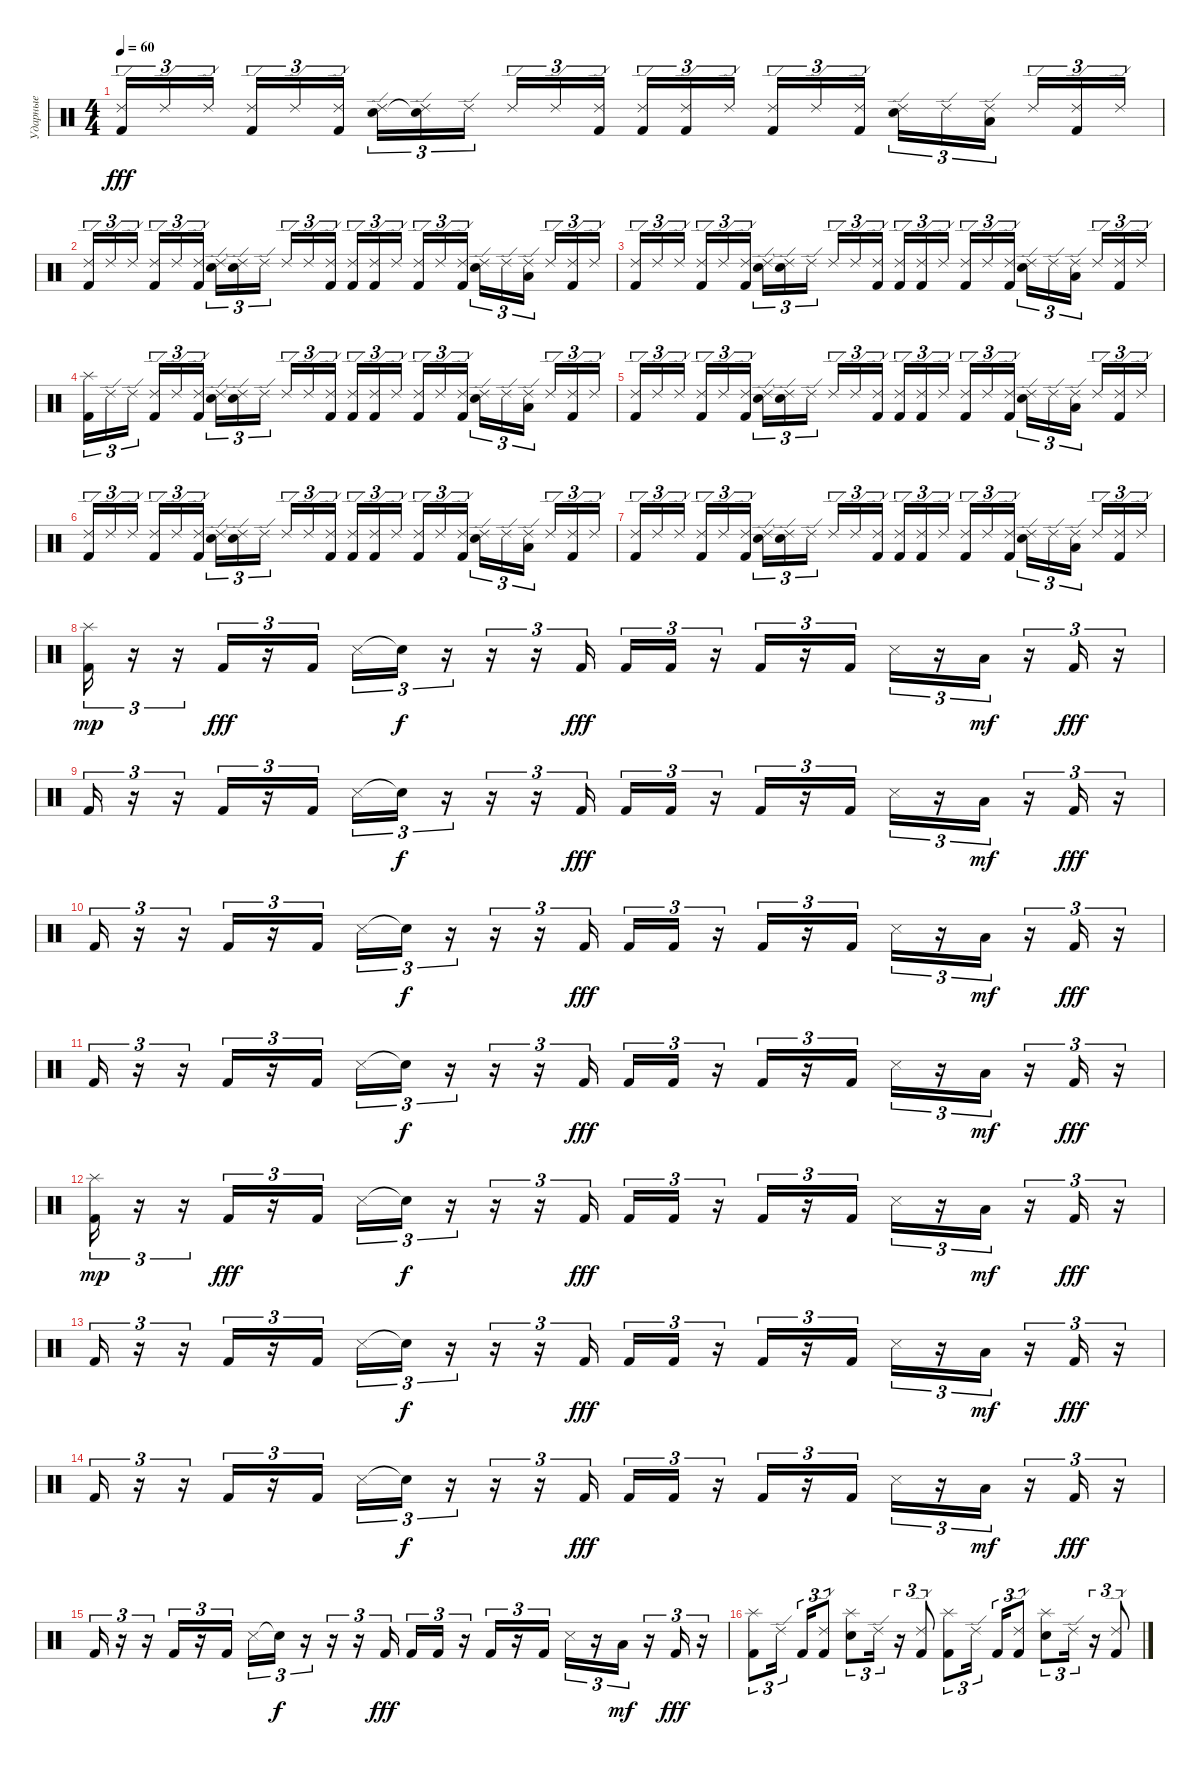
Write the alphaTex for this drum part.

\track ("Ударные" "Ударные") {instrument percussion}
\staff {score}
\articulation defaults
\ts (4 4)
\tempo 60
\clef neutral
\ks c
("Kick (hit) 2" "Ride (edge) 2").16{tu (3 2) dy fff} "Ride (edge) 2".16{tu (3 2)} "Ride (edge) 2".16{tu (3 2) beam splitsecondary} ("Kick (hit) 2" "Ride (edge) 2").16{tu (3 2)} "Ride (edge) 2".16{tu (3 2)} ("Kick (hit) 2" "Ride (edge) 2").16{tu (3 2)} ("Electric Snare (hit)" "Ride (edge) 2").16{tu (3 2)} ("Snare (hit)"{t} "Ride (edge) 2").16{tu (3 2)} "Ride (edge) 2".16{tu (3 2) beam splitsecondary} "Ride (edge) 2".16{tu (3 2)} "Ride (edge) 2".16{tu (3 2)} ("Kick (hit) 2" "Ride (edge) 2").16{tu (3 2)} ("Kick (hit) 2" "Ride (edge) 2").16{tu (3 2)} ("Kick (hit) 2" "Ride (edge) 2").16{tu (3 2)} "Ride (edge) 2".16{tu (3 2) beam splitsecondary} ("Kick (hit) 2" "Ride (edge) 2").16{tu (3 2)} "Ride (edge) 2".16{tu (3 2)} ("Kick (hit) 2" "Ride (edge) 2").16{tu (3 2)} ("Electric Snare (hit)" "Ride (edge) 2").16{tu (3 2)} "Ride (edge) 2".16{tu (3 2)} ("Low Floor Tom (hit)" "Ride (edge) 2").16{tu (3 2) beam splitsecondary} "Ride (edge) 2".16{tu (3 2)} ("Kick (hit) 2" "Ride (edge) 2").16{tu (3 2)} "Ride (edge) 2".16{tu (3 2)} |
("Kick (hit) 2" "Ride (edge) 2").16{tu (3 2)} "Ride (edge) 2".16{tu (3 2)} "Ride (edge) 2".16{tu (3 2) beam splitsecondary} ("Kick (hit) 2" "Ride (edge) 2").16{tu (3 2)} "Ride (edge) 2".16{tu (3 2)} ("Kick (hit) 2" "Ride (edge) 2").16{tu (3 2)} ("Electric Snare (hit)" "Ride (edge) 2").16{tu (3 2)} ("Snare (hit)"{t} "Ride (edge) 2").16{tu (3 2)} "Ride (edge) 2".16{tu (3 2) beam splitsecondary} "Ride (edge) 2".16{tu (3 2)} "Ride (edge) 2".16{tu (3 2)} ("Kick (hit) 2" "Ride (edge) 2").16{tu (3 2)} ("Kick (hit) 2" "Ride (edge) 2").16{tu (3 2)} ("Kick (hit) 2" "Ride (edge) 2").16{tu (3 2)} "Ride (edge) 2".16{tu (3 2) beam splitsecondary} ("Kick (hit) 2" "Ride (edge) 2").16{tu (3 2)} "Ride (edge) 2".16{tu (3 2)} ("Kick (hit) 2" "Ride (edge) 2").16{tu (3 2)} ("Electric Snare (hit)" "Ride (edge) 2").16{tu (3 2)} "Ride (edge) 2".16{tu (3 2)} ("Low Floor Tom (hit)" "Ride (edge) 2").16{tu (3 2) beam splitsecondary} "Ride (edge) 2".16{tu (3 2)} ("Kick (hit) 2" "Ride (edge) 2").16{tu (3 2)} "Ride (edge) 2".16{tu (3 2)} |
("Kick (hit) 2" "Ride (edge) 2").16{tu (3 2)} "Ride (edge) 2".16{tu (3 2)} "Ride (edge) 2".16{tu (3 2) beam splitsecondary} ("Kick (hit) 2" "Ride (edge) 2").16{tu (3 2)} "Ride (edge) 2".16{tu (3 2)} ("Kick (hit) 2" "Ride (edge) 2").16{tu (3 2)} ("Electric Snare (hit)" "Ride (edge) 2").16{tu (3 2)} ("Snare (hit)"{t} "Ride (edge) 2").16{tu (3 2)} "Ride (edge) 2".16{tu (3 2) beam splitsecondary} "Ride (edge) 2".16{tu (3 2)} "Ride (edge) 2".16{tu (3 2)} ("Kick (hit) 2" "Ride (edge) 2").16{tu (3 2)} ("Kick (hit) 2" "Ride (edge) 2").16{tu (3 2)} ("Kick (hit) 2" "Ride (edge) 2").16{tu (3 2)} "Ride (edge) 2".16{tu (3 2) beam splitsecondary} ("Kick (hit) 2" "Ride (edge) 2").16{tu (3 2)} "Ride (edge) 2".16{tu (3 2)} ("Kick (hit) 2" "Ride (edge) 2").16{tu (3 2)} ("Electric Snare (hit)" "Ride (edge) 2").16{tu (3 2)} "Ride (edge) 2".16{tu (3 2)} ("Low Floor Tom (hit)" "Ride (edge) 2").16{tu (3 2) beam splitsecondary} "Ride (edge) 2".16{tu (3 2)} ("Kick (hit) 2" "Ride (edge) 2").16{tu (3 2)} "Ride (edge) 2".16{tu (3 2)} |
("Kick (hit) 2" "Splash (hit)").16{tu (3 2)} "Ride (edge) 2".16{tu (3 2)} "Ride (edge) 2".16{tu (3 2) beam splitsecondary} ("Kick (hit) 2" "Ride (edge) 2").16{tu (3 2)} "Ride (edge) 2".16{tu (3 2)} ("Kick (hit) 2" "Ride (edge) 2").16{tu (3 2)} ("Electric Snare (hit)" "Ride (edge) 2").16{tu (3 2)} ("Snare (hit)"{t} "Ride (edge) 2").16{tu (3 2)} "Ride (edge) 2".16{tu (3 2) beam splitsecondary} "Ride (edge) 2".16{tu (3 2)} "Ride (edge) 2".16{tu (3 2)} ("Kick (hit) 2" "Ride (edge) 2").16{tu (3 2)} ("Kick (hit) 2" "Ride (edge) 2").16{tu (3 2)} ("Kick (hit) 2" "Ride (edge) 2").16{tu (3 2)} "Ride (edge) 2".16{tu (3 2) beam splitsecondary} ("Kick (hit) 2" "Ride (edge) 2").16{tu (3 2)} "Ride (edge) 2".16{tu (3 2)} ("Kick (hit) 2" "Ride (edge) 2").16{tu (3 2)} ("Electric Snare (hit)" "Ride (edge) 2").16{tu (3 2)} "Ride (edge) 2".16{tu (3 2)} ("Low Floor Tom (hit)" "Ride (edge) 2").16{tu (3 2) beam splitsecondary} "Ride (edge) 2".16{tu (3 2)} ("Kick (hit) 2" "Ride (edge) 2").16{tu (3 2)} "Ride (edge) 2".16{tu (3 2)} |
("Kick (hit) 2" "Ride (edge) 2").16{tu (3 2)} "Ride (edge) 2".16{tu (3 2)} "Ride (edge) 2".16{tu (3 2) beam splitsecondary} ("Kick (hit) 2" "Ride (edge) 2").16{tu (3 2)} "Ride (edge) 2".16{tu (3 2)} ("Kick (hit) 2" "Ride (edge) 2").16{tu (3 2)} ("Electric Snare (hit)" "Ride (edge) 2").16{tu (3 2)} ("Snare (hit)"{t} "Ride (edge) 2").16{tu (3 2)} "Ride (edge) 2".16{tu (3 2) beam splitsecondary} "Ride (edge) 2".16{tu (3 2)} "Ride (edge) 2".16{tu (3 2)} ("Kick (hit) 2" "Ride (edge) 2").16{tu (3 2)} ("Kick (hit) 2" "Ride (edge) 2").16{tu (3 2)} ("Kick (hit) 2" "Ride (edge) 2").16{tu (3 2)} "Ride (edge) 2".16{tu (3 2) beam splitsecondary} ("Kick (hit) 2" "Ride (edge) 2").16{tu (3 2)} "Ride (edge) 2".16{tu (3 2)} ("Kick (hit) 2" "Ride (edge) 2").16{tu (3 2)} ("Electric Snare (hit)" "Ride (edge) 2").16{tu (3 2)} "Ride (edge) 2".16{tu (3 2)} ("Low Floor Tom (hit)" "Ride (edge) 2").16{tu (3 2) beam splitsecondary} "Ride (edge) 2".16{tu (3 2)} ("Kick (hit) 2" "Ride (edge) 2").16{tu (3 2)} "Ride (edge) 2".16{tu (3 2)} |
("Kick (hit) 2" "Ride (edge) 2").16{tu (3 2)} "Ride (edge) 2".16{tu (3 2)} "Ride (edge) 2".16{tu (3 2) beam splitsecondary} ("Kick (hit) 2" "Ride (edge) 2").16{tu (3 2)} "Ride (edge) 2".16{tu (3 2)} ("Kick (hit) 2" "Ride (edge) 2").16{tu (3 2)} ("Electric Snare (hit)" "Ride (edge) 2").16{tu (3 2)} ("Snare (hit)"{t} "Ride (edge) 2").16{tu (3 2)} "Ride (edge) 2".16{tu (3 2) beam splitsecondary} "Ride (edge) 2".16{tu (3 2)} "Ride (edge) 2".16{tu (3 2)} ("Kick (hit) 2" "Ride (edge) 2").16{tu (3 2)} ("Kick (hit) 2" "Ride (edge) 2").16{tu (3 2)} ("Kick (hit) 2" "Ride (edge) 2").16{tu (3 2)} "Ride (edge) 2".16{tu (3 2) beam splitsecondary} ("Kick (hit) 2" "Ride (edge) 2").16{tu (3 2)} "Ride (edge) 2".16{tu (3 2)} ("Kick (hit) 2" "Ride (edge) 2").16{tu (3 2)} ("Electric Snare (hit)" "Ride (edge) 2").16{tu (3 2)} "Ride (edge) 2".16{tu (3 2)} ("Low Floor Tom (hit)" "Ride (edge) 2").16{tu (3 2) beam splitsecondary} "Ride (edge) 2".16{tu (3 2)} ("Kick (hit) 2" "Ride (edge) 2").16{tu (3 2)} "Ride (edge) 2".16{tu (3 2)} |
("Kick (hit) 2" "Ride (edge) 2").16{tu (3 2)} "Ride (edge) 2".16{tu (3 2)} "Ride (edge) 2".16{tu (3 2) beam splitsecondary} ("Kick (hit) 2" "Ride (edge) 2").16{tu (3 2)} "Ride (edge) 2".16{tu (3 2)} ("Kick (hit) 2" "Ride (edge) 2").16{tu (3 2)} ("Electric Snare (hit)" "Ride (edge) 2").16{tu (3 2)} ("Snare (hit)"{t} "Ride (edge) 2").16{tu (3 2)} "Ride (edge) 2".16{tu (3 2) beam splitsecondary} "Ride (edge) 2".16{tu (3 2)} "Ride (edge) 2".16{tu (3 2)} ("Kick (hit) 2" "Ride (edge) 2").16{tu (3 2)} ("Kick (hit) 2" "Ride (edge) 2").16{tu (3 2)} ("Kick (hit) 2" "Ride (edge) 2").16{tu (3 2)} "Ride (edge) 2".16{tu (3 2) beam splitsecondary} ("Kick (hit) 2" "Ride (edge) 2").16{tu (3 2)} "Ride (edge) 2".16{tu (3 2)} ("Kick (hit) 2" "Ride (edge) 2").16{tu (3 2)} ("Electric Snare (hit)" "Ride (edge) 2").16{tu (3 2)} "Ride (edge) 2".16{tu (3 2)} ("Low Floor Tom (hit)" "Ride (edge) 2").16{tu (3 2) beam splitsecondary} "Ride (edge) 2".16{tu (3 2)} ("Kick (hit) 2" "Ride (edge) 2").16{tu (3 2)} "Ride (edge) 2".16{tu (3 2)} |
("Kick (hit) 2" "Splash (hit)").16{tu (3 2) dy mp} r.16{tu (3 2)} r.16{tu (3 2)} "Kick (hit) 2".16{tu (3 2) dy fff} r.16{tu (3 2)} "Kick (hit) 2".16{tu (3 2)} "Snare (side stick) 3".16{tu (3 2)} "Snare (hit)"{t}.16{tu (3 2) dy f} r.16{tu (3 2)} r.16{tu (3 2)} r.16{tu (3 2)} "Kick (hit) 2".16{tu (3 2) dy fff} "Kick (hit) 2".16{tu (3 2)} "Kick (hit) 2".16{tu (3 2)} r.16{tu (3 2)} "Kick (hit) 2".16{tu (3 2)} r.16{tu (3 2)} "Kick (hit) 2".16{tu (3 2)} "Snare (side stick) 3".16{tu (3 2)} r.16{tu (3 2)} "Low Floor Tom (hit)".16{tu (3 2) dy mf} r.16{tu (3 2)} "Kick (hit) 2".16{tu (3 2) dy fff} r.16{tu (3 2)} |
"Kick (hit) 2".16{tu (3 2)} r.16{tu (3 2)} r.16{tu (3 2)} "Kick (hit) 2".16{tu (3 2)} r.16{tu (3 2)} "Kick (hit) 2".16{tu (3 2)} "Snare (side stick) 3".16{tu (3 2)} "Snare (hit)"{t}.16{tu (3 2) dy f} r.16{tu (3 2)} r.16{tu (3 2)} r.16{tu (3 2)} "Kick (hit) 2".16{tu (3 2) dy fff} "Kick (hit) 2".16{tu (3 2)} "Kick (hit) 2".16{tu (3 2)} r.16{tu (3 2)} "Kick (hit) 2".16{tu (3 2)} r.16{tu (3 2)} "Kick (hit) 2".16{tu (3 2)} "Snare (side stick) 3".16{tu (3 2)} r.16{tu (3 2)} "Low Floor Tom (hit)".16{tu (3 2) dy mf} r.16{tu (3 2)} "Kick (hit) 2".16{tu (3 2) dy fff} r.16{tu (3 2)} |
"Kick (hit) 2".16{tu (3 2)} r.16{tu (3 2)} r.16{tu (3 2)} "Kick (hit) 2".16{tu (3 2)} r.16{tu (3 2)} "Kick (hit) 2".16{tu (3 2)} "Snare (side stick) 3".16{tu (3 2)} "Snare (hit)"{t}.16{tu (3 2) dy f} r.16{tu (3 2)} r.16{tu (3 2)} r.16{tu (3 2)} "Kick (hit) 2".16{tu (3 2) dy fff} "Kick (hit) 2".16{tu (3 2)} "Kick (hit) 2".16{tu (3 2)} r.16{tu (3 2)} "Kick (hit) 2".16{tu (3 2)} r.16{tu (3 2)} "Kick (hit) 2".16{tu (3 2)} "Snare (side stick) 3".16{tu (3 2)} r.16{tu (3 2)} "Low Floor Tom (hit)".16{tu (3 2) dy mf} r.16{tu (3 2)} "Kick (hit) 2".16{tu (3 2) dy fff} r.16{tu (3 2)} |
"Kick (hit) 2".16{tu (3 2)} r.16{tu (3 2)} r.16{tu (3 2)} "Kick (hit) 2".16{tu (3 2)} r.16{tu (3 2)} "Kick (hit) 2".16{tu (3 2)} "Snare (side stick) 3".16{tu (3 2)} "Snare (hit)"{t}.16{tu (3 2) dy f} r.16{tu (3 2)} r.16{tu (3 2)} r.16{tu (3 2)} "Kick (hit) 2".16{tu (3 2) dy fff} "Kick (hit) 2".16{tu (3 2)} "Kick (hit) 2".16{tu (3 2)} r.16{tu (3 2)} "Kick (hit) 2".16{tu (3 2)} r.16{tu (3 2)} "Kick (hit) 2".16{tu (3 2)} "Snare (side stick) 3".16{tu (3 2)} r.16{tu (3 2)} "Low Floor Tom (hit)".16{tu (3 2) dy mf} r.16{tu (3 2)} "Kick (hit) 2".16{tu (3 2) dy fff} r.16{tu (3 2)} |
("Kick (hit) 2" "Splash (hit)").16{tu (3 2) dy mp} r.16{tu (3 2)} r.16{tu (3 2)} "Kick (hit) 2".16{tu (3 2) dy fff} r.16{tu (3 2)} "Kick (hit) 2".16{tu (3 2)} "Snare (side stick) 3".16{tu (3 2)} "Snare (hit)"{t}.16{tu (3 2) dy f} r.16{tu (3 2)} r.16{tu (3 2)} r.16{tu (3 2)} "Kick (hit) 2".16{tu (3 2) dy fff} "Kick (hit) 2".16{tu (3 2)} "Kick (hit) 2".16{tu (3 2)} r.16{tu (3 2)} "Kick (hit) 2".16{tu (3 2)} r.16{tu (3 2)} "Kick (hit) 2".16{tu (3 2)} "Snare (side stick) 3".16{tu (3 2)} r.16{tu (3 2)} "Low Floor Tom (hit)".16{tu (3 2) dy mf} r.16{tu (3 2)} "Kick (hit) 2".16{tu (3 2) dy fff} r.16{tu (3 2)} |
"Kick (hit) 2".16{tu (3 2)} r.16{tu (3 2)} r.16{tu (3 2)} "Kick (hit) 2".16{tu (3 2)} r.16{tu (3 2)} "Kick (hit) 2".16{tu (3 2)} "Snare (side stick) 3".16{tu (3 2)} "Snare (hit)"{t}.16{tu (3 2) dy f} r.16{tu (3 2)} r.16{tu (3 2)} r.16{tu (3 2)} "Kick (hit) 2".16{tu (3 2) dy fff} "Kick (hit) 2".16{tu (3 2)} "Kick (hit) 2".16{tu (3 2)} r.16{tu (3 2)} "Kick (hit) 2".16{tu (3 2)} r.16{tu (3 2)} "Kick (hit) 2".16{tu (3 2)} "Snare (side stick) 3".16{tu (3 2)} r.16{tu (3 2)} "Low Floor Tom (hit)".16{tu (3 2) dy mf} r.16{tu (3 2)} "Kick (hit) 2".16{tu (3 2) dy fff} r.16{tu (3 2)} |
"Kick (hit) 2".16{tu (3 2)} r.16{tu (3 2)} r.16{tu (3 2)} "Kick (hit) 2".16{tu (3 2)} r.16{tu (3 2)} "Kick (hit) 2".16{tu (3 2)} "Snare (side stick) 3".16{tu (3 2)} "Snare (hit)"{t}.16{tu (3 2) dy f} r.16{tu (3 2)} r.16{tu (3 2)} r.16{tu (3 2)} "Kick (hit) 2".16{tu (3 2) dy fff} "Kick (hit) 2".16{tu (3 2)} "Kick (hit) 2".16{tu (3 2)} r.16{tu (3 2)} "Kick (hit) 2".16{tu (3 2)} r.16{tu (3 2)} "Kick (hit) 2".16{tu (3 2)} "Snare (side stick) 3".16{tu (3 2)} r.16{tu (3 2)} "Low Floor Tom (hit)".16{tu (3 2) dy mf} r.16{tu (3 2)} "Kick (hit) 2".16{tu (3 2) dy fff} r.16{tu (3 2)} |
"Kick (hit) 2".16{tu (3 2)} r.16{tu (3 2)} r.16{tu (3 2)} "Kick (hit) 2".16{tu (3 2)} r.16{tu (3 2)} "Kick (hit) 2".16{tu (3 2)} "Snare (side stick) 3".16{tu (3 2)} "Snare (hit)"{t}.16{tu (3 2) dy f} r.16{tu (3 2)} r.16{tu (3 2)} r.16{tu (3 2)} "Kick (hit) 2".16{tu (3 2) dy fff} "Kick (hit) 2".16{tu (3 2)} "Kick (hit) 2".16{tu (3 2)} r.16{tu (3 2)} "Kick (hit) 2".16{tu (3 2)} r.16{tu (3 2)} "Kick (hit) 2".16{tu (3 2)} "Snare (side stick) 3".16{tu (3 2)} r.16{tu (3 2)} "Low Floor Tom (hit)".16{tu (3 2) dy mf} r.16{tu (3 2)} "Kick (hit) 2".16{tu (3 2) dy fff} r.16{tu (3 2)} |
("Kick (hit) 2" "Splash (hit)").8{tu (3 2)} "Ride (edge) 2".16{tu (3 2) beam splitsecondary} "Kick (hit) 2".16{tu (3 2)} ("Kick (hit) 2" "Ride (edge) 2").8{tu (3 2)} ("Electric Snare (hit)" "Splash (hit)").8{tu (3 2)} "Ride (edge) 2".16{tu (3 2)} r.16{tu (3 2)} ("Kick (hit) 2" "Ride (edge) 2").8{tu (3 2)} ("Kick (hit) 2" "Splash (hit)").8{tu (3 2)} "Ride (edge) 2".16{tu (3 2) beam splitsecondary} "Kick (hit) 2".16{tu (3 2)} ("Kick (hit) 2" "Ride (edge) 2").8{tu (3 2)} ("Electric Snare (hit)" "Splash (hit)").8{tu (3 2)} "Ride (edge) 2".16{tu (3 2)} r.16{tu (3 2)} ("Kick (hit) 2" "Ride (edge) 2").8{tu (3 2)}
